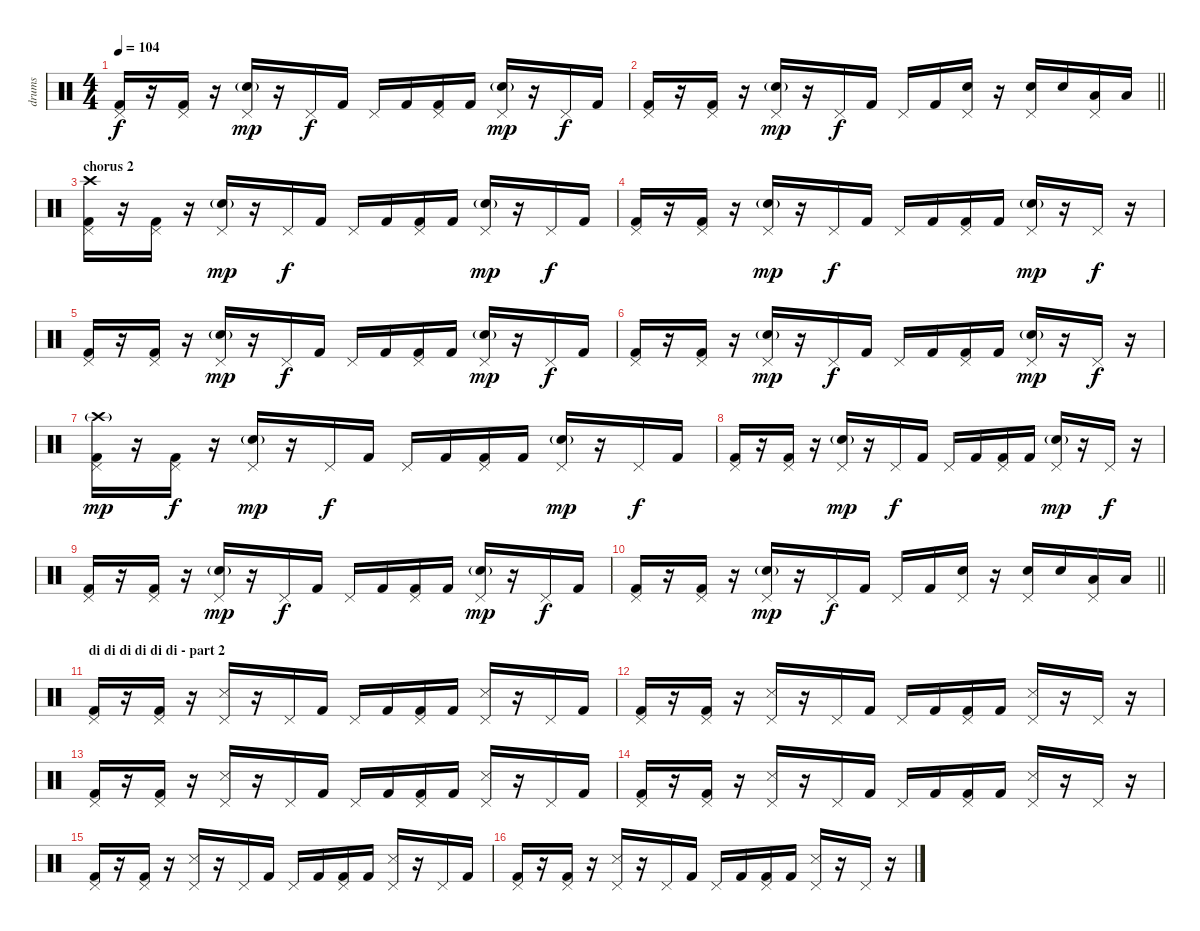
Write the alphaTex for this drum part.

\track ("drums" "drums") {instrument percussion}
\staff {score}
\articulation defaults
\ts (4 4)
\tempo 104
\clef neutral
\ks c
("Kick (hit) 2" "Pedal Hi-Hat (hit)").16{dy f} r.16 ("Kick (hit) 2" "Pedal Hi-Hat (hit)").16 r.16 ("Snare (hit) 2"{g} "Pedal Hi-Hat (hit)").16{dy mp} r.16 "Pedal Hi-Hat (hit)".16{dy f} "Kick (hit) 2".16 "Pedal Hi-Hat (hit)".16 "Kick (hit) 2".16 ("Kick (hit) 2" "Pedal Hi-Hat (hit)").16 "Kick (hit) 2".16 ("Snare (hit) 2"{g} "Pedal Hi-Hat (hit)").16{dy mp} r.16 "Pedal Hi-Hat (hit)".16{dy f} "Kick (hit) 2".16 |
\barLineRight lightlight
("Kick (hit) 2" "Pedal Hi-Hat (hit)").16 r.16 ("Kick (hit) 2" "Pedal Hi-Hat (hit)").16 r.16 ("Snare (hit) 2"{g} "Pedal Hi-Hat (hit)").16{dy mp} r.16 "Pedal Hi-Hat (hit)".16{dy f} "Kick (hit) 2".16 "Pedal Hi-Hat (hit)".16 "Kick (hit) 2".16 ("Snare (hit) 2" "Pedal Hi-Hat (hit)").16 r.16 ("Snare (hit) 2" "Pedal Hi-Hat (hit)").16 "Snare (hit) 2".16 ("Low Tom (hit)" "Pedal Hi-Hat (hit)").16 "Low Tom (hit)".16 |
\section ("" "chorus 2")
("Kick (hit) 2" "Pedal Hi-Hat (hit)" "Crash high (hit)").16 r.16 ("Kick (hit) 2" "Pedal Hi-Hat (hit)").16 r.16 ("Snare (hit) 2"{g} "Pedal Hi-Hat (hit)").16{dy mp} r.16 "Pedal Hi-Hat (hit)".16{dy f} "Kick (hit) 2".16 "Pedal Hi-Hat (hit)".16 "Kick (hit) 2".16 ("Kick (hit) 2" "Pedal Hi-Hat (hit)").16 "Kick (hit) 2".16 ("Snare (hit) 2"{g} "Pedal Hi-Hat (hit)").16{dy mp} r.16 "Pedal Hi-Hat (hit)".16{dy f} "Kick (hit) 2".16 |
("Kick (hit) 2" "Pedal Hi-Hat (hit)").16 r.16 ("Kick (hit) 2" "Pedal Hi-Hat (hit)").16 r.16 ("Snare (hit) 2"{g} "Pedal Hi-Hat (hit)").16{dy mp} r.16 "Pedal Hi-Hat (hit)".16{dy f} "Kick (hit) 2".16 "Pedal Hi-Hat (hit)".16 "Kick (hit) 2".16 ("Kick (hit) 2" "Pedal Hi-Hat (hit)").16 "Kick (hit) 2".16 ("Snare (hit) 2"{g} "Pedal Hi-Hat (hit)").16{dy mp} r.16 "Pedal Hi-Hat (hit)".16{dy f} r.16 |
("Kick (hit) 2" "Pedal Hi-Hat (hit)").16 r.16 ("Kick (hit) 2" "Pedal Hi-Hat (hit)").16 r.16 ("Snare (hit) 2"{g} "Pedal Hi-Hat (hit)").16{dy mp} r.16 "Pedal Hi-Hat (hit)".16{dy f} "Kick (hit) 2".16 "Pedal Hi-Hat (hit)".16 "Kick (hit) 2".16 ("Kick (hit) 2" "Pedal Hi-Hat (hit)").16 "Kick (hit) 2".16 ("Snare (hit) 2"{g} "Pedal Hi-Hat (hit)").16{dy mp} r.16 "Pedal Hi-Hat (hit)".16{dy f} "Kick (hit) 2".16 |
("Kick (hit) 2" "Pedal Hi-Hat (hit)").16 r.16 ("Kick (hit) 2" "Pedal Hi-Hat (hit)").16 r.16 ("Snare (hit) 2"{g} "Pedal Hi-Hat (hit)").16{dy mp} r.16 "Pedal Hi-Hat (hit)".16{dy f} "Kick (hit) 2".16 "Pedal Hi-Hat (hit)".16 "Kick (hit) 2".16 ("Kick (hit) 2" "Pedal Hi-Hat (hit)").16 "Kick (hit) 2".16 ("Snare (hit) 2"{g} "Pedal Hi-Hat (hit)").16{dy mp} r.16 "Pedal Hi-Hat (hit)".16{dy f} r.16 |
("Kick (hit) 2" "Pedal Hi-Hat (hit)" "Crash high (hit)"{g}).16{dy mp} r.16 ("Kick (hit) 2" "Pedal Hi-Hat (hit)").16{dy f} r.16 ("Snare (hit) 2"{g} "Pedal Hi-Hat (hit)").16{dy mp} r.16 "Pedal Hi-Hat (hit)".16{dy f} "Kick (hit) 2".16 "Pedal Hi-Hat (hit)".16 "Kick (hit) 2".16 ("Kick (hit) 2" "Pedal Hi-Hat (hit)").16 "Kick (hit) 2".16 ("Snare (hit) 2"{g} "Pedal Hi-Hat (hit)").16{dy mp} r.16 "Pedal Hi-Hat (hit)".16{dy f} "Kick (hit) 2".16 |
("Kick (hit) 2" "Pedal Hi-Hat (hit)").16 r.16 ("Kick (hit) 2" "Pedal Hi-Hat (hit)").16 r.16 ("Snare (hit) 2"{g} "Pedal Hi-Hat (hit)").16{dy mp} r.16 "Pedal Hi-Hat (hit)".16{dy f} "Kick (hit) 2".16 "Pedal Hi-Hat (hit)".16 "Kick (hit) 2".16 ("Kick (hit) 2" "Pedal Hi-Hat (hit)").16 "Kick (hit) 2".16 ("Snare (hit) 2"{g} "Pedal Hi-Hat (hit)").16{dy mp} r.16 "Pedal Hi-Hat (hit)".16{dy f} r.16 |
("Kick (hit) 2" "Pedal Hi-Hat (hit)").16 r.16 ("Kick (hit) 2" "Pedal Hi-Hat (hit)").16 r.16 ("Snare (hit) 2"{g} "Pedal Hi-Hat (hit)").16{dy mp} r.16 "Pedal Hi-Hat (hit)".16{dy f} "Kick (hit) 2".16 "Pedal Hi-Hat (hit)".16 "Kick (hit) 2".16 ("Kick (hit) 2" "Pedal Hi-Hat (hit)").16 "Kick (hit) 2".16 ("Snare (hit) 2"{g} "Pedal Hi-Hat (hit)").16{dy mp} r.16 "Pedal Hi-Hat (hit)".16{dy f} "Kick (hit) 2".16 |
\barLineRight lightlight
("Kick (hit) 2" "Pedal Hi-Hat (hit)").16 r.16 ("Kick (hit) 2" "Pedal Hi-Hat (hit)").16 r.16 ("Snare (hit) 2"{g} "Pedal Hi-Hat (hit)").16{dy mp} r.16 "Pedal Hi-Hat (hit)".16{dy f} "Kick (hit) 2".16 "Pedal Hi-Hat (hit)".16 "Kick (hit) 2".16 ("Snare (hit) 2" "Pedal Hi-Hat (hit)").16 r.16 ("Snare (hit) 2" "Pedal Hi-Hat (hit)").16 "Snare (hit) 2".16 ("Low Tom (hit)" "Pedal Hi-Hat (hit)").16 "Low Tom (hit)".16 |
\section ("" "di di di di di di - part 2")
("Kick (hit) 2" "Pedal Hi-Hat (hit)").16 r.16 ("Kick (hit) 2" "Pedal Hi-Hat (hit)").16 r.16 ("Snare (side stick) 3" "Pedal Hi-Hat (hit)").16 r.16 "Pedal Hi-Hat (hit)".16 "Kick (hit) 2".16 "Pedal Hi-Hat (hit)".16 "Kick (hit) 2".16 ("Kick (hit) 2" "Pedal Hi-Hat (hit)").16 "Kick (hit) 2".16 ("Snare (side stick) 3" "Pedal Hi-Hat (hit)").16 r.16 "Pedal Hi-Hat (hit)".16 "Kick (hit) 2".16 |
("Kick (hit) 2" "Pedal Hi-Hat (hit)").16 r.16 ("Kick (hit) 2" "Pedal Hi-Hat (hit)").16 r.16 ("Snare (side stick) 3" "Pedal Hi-Hat (hit)").16 r.16 "Pedal Hi-Hat (hit)".16 "Kick (hit) 2".16 "Pedal Hi-Hat (hit)".16 "Kick (hit) 2".16 ("Kick (hit) 2" "Pedal Hi-Hat (hit)").16 "Kick (hit) 2".16 ("Snare (side stick) 3" "Pedal Hi-Hat (hit)").16 r.16 "Pedal Hi-Hat (hit)".16 r.16 |
("Kick (hit) 2" "Pedal Hi-Hat (hit)").16 r.16 ("Kick (hit) 2" "Pedal Hi-Hat (hit)").16 r.16 ("Snare (side stick) 3" "Pedal Hi-Hat (hit)").16 r.16 "Pedal Hi-Hat (hit)".16 "Kick (hit) 2".16 "Pedal Hi-Hat (hit)".16 "Kick (hit) 2".16 ("Kick (hit) 2" "Pedal Hi-Hat (hit)").16 "Kick (hit) 2".16 ("Snare (side stick) 3" "Pedal Hi-Hat (hit)").16 r.16 "Pedal Hi-Hat (hit)".16 "Kick (hit) 2".16 |
("Kick (hit) 2" "Pedal Hi-Hat (hit)").16 r.16 ("Kick (hit) 2" "Pedal Hi-Hat (hit)").16 r.16 ("Snare (side stick) 3" "Pedal Hi-Hat (hit)").16 r.16 "Pedal Hi-Hat (hit)".16 "Kick (hit) 2".16 "Pedal Hi-Hat (hit)".16 "Kick (hit) 2".16 ("Kick (hit) 2" "Pedal Hi-Hat (hit)").16 "Kick (hit) 2".16 ("Snare (side stick) 3" "Pedal Hi-Hat (hit)").16 r.16 "Pedal Hi-Hat (hit)".16 r.16 |
("Kick (hit) 2" "Pedal Hi-Hat (hit)").16 r.16 ("Kick (hit) 2" "Pedal Hi-Hat (hit)").16 r.16 ("Snare (side stick) 3" "Pedal Hi-Hat (hit)").16 r.16 "Pedal Hi-Hat (hit)".16 "Kick (hit) 2".16 "Pedal Hi-Hat (hit)".16 "Kick (hit) 2".16 ("Kick (hit) 2" "Pedal Hi-Hat (hit)").16 "Kick (hit) 2".16 ("Snare (side stick) 3" "Pedal Hi-Hat (hit)").16 r.16 "Pedal Hi-Hat (hit)".16 "Kick (hit) 2".16 |
("Kick (hit) 2" "Pedal Hi-Hat (hit)").16 r.16 ("Kick (hit) 2" "Pedal Hi-Hat (hit)").16 r.16 ("Snare (side stick) 3" "Pedal Hi-Hat (hit)").16 r.16 "Pedal Hi-Hat (hit)".16 "Kick (hit) 2".16 "Pedal Hi-Hat (hit)".16 "Kick (hit) 2".16 ("Kick (hit) 2" "Pedal Hi-Hat (hit)").16 "Kick (hit) 2".16 ("Snare (side stick) 3" "Pedal Hi-Hat (hit)").16 r.16 "Pedal Hi-Hat (hit)".16 r.16
